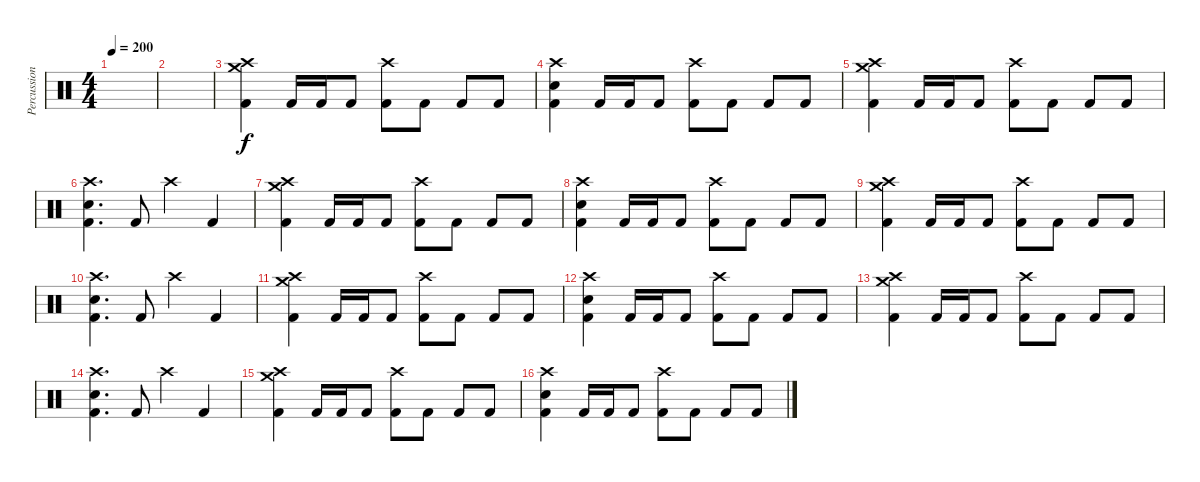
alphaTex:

\track ("Percussions" "Percussion") {instrument percussion}
\staff {score}
\articulation defaults
\ts (4 4)
\tempo 200
\clef neutral
\ks c
|
|
("Crash medium (hit)" "Crash high (hit)" "Kick (hit) 2").4 "Kick (hit) 2".16 "Kick (hit) 2".16 "Kick (hit) 2".8 ("Crash high (hit)" "Kick (hit) 2").8 "Kick (hit) 2".8 "Kick (hit) 2".8 "Kick (hit) 2".8 |
("Crash high (hit)" "Electric Snare (hit)" "Kick (hit) 2").4 "Kick (hit) 2".16 "Kick (hit) 2".16 "Kick (hit) 2".8 ("Crash high (hit)" "Kick (hit) 2").8 "Kick (hit) 2".8 "Kick (hit) 2".8 "Kick (hit) 2".8 |
("Crash medium (hit)" "Crash high (hit)" "Kick (hit) 2").4 "Kick (hit) 2".16 "Kick (hit) 2".16 "Kick (hit) 2".8 ("Crash high (hit)" "Kick (hit) 2").8 "Kick (hit) 2".8 "Kick (hit) 2".8 "Kick (hit) 2".8 |
("Crash high (hit)" "Electric Snare (hit)" "Kick (hit) 2").4{d} "Kick (hit) 2".8 "Crash high (hit)".4 "Kick (hit) 2".4 |
("Crash medium (hit)" "Crash high (hit)" "Kick (hit) 2").4 "Kick (hit) 2".16 "Kick (hit) 2".16 "Kick (hit) 2".8 ("Crash high (hit)" "Kick (hit) 2").8 "Kick (hit) 2".8 "Kick (hit) 2".8 "Kick (hit) 2".8 |
("Crash high (hit)" "Electric Snare (hit)" "Kick (hit) 2").4 "Kick (hit) 2".16 "Kick (hit) 2".16 "Kick (hit) 2".8 ("Crash high (hit)" "Kick (hit) 2").8 "Kick (hit) 2".8 "Kick (hit) 2".8 "Kick (hit) 2".8 |
("Crash medium (hit)" "Crash high (hit)" "Kick (hit) 2").4 "Kick (hit) 2".16 "Kick (hit) 2".16 "Kick (hit) 2".8 ("Crash high (hit)" "Kick (hit) 2").8 "Kick (hit) 2".8 "Kick (hit) 2".8 "Kick (hit) 2".8 |
("Crash high (hit)" "Electric Snare (hit)" "Kick (hit) 2").4{d} "Kick (hit) 2".8 "Crash high (hit)".4 "Kick (hit) 2".4 |
("Crash medium (hit)" "Crash high (hit)" "Kick (hit) 2").4 "Kick (hit) 2".16 "Kick (hit) 2".16 "Kick (hit) 2".8 ("Crash high (hit)" "Kick (hit) 2").8 "Kick (hit) 2".8 "Kick (hit) 2".8 "Kick (hit) 2".8 |
("Crash high (hit)" "Electric Snare (hit)" "Kick (hit) 2").4 "Kick (hit) 2".16 "Kick (hit) 2".16 "Kick (hit) 2".8 ("Crash high (hit)" "Kick (hit) 2").8 "Kick (hit) 2".8 "Kick (hit) 2".8 "Kick (hit) 2".8 |
("Crash medium (hit)" "Crash high (hit)" "Kick (hit) 2").4 "Kick (hit) 2".16 "Kick (hit) 2".16 "Kick (hit) 2".8 ("Crash high (hit)" "Kick (hit) 2").8 "Kick (hit) 2".8 "Kick (hit) 2".8 "Kick (hit) 2".8 |
("Crash high (hit)" "Electric Snare (hit)" "Kick (hit) 2").4{d} "Kick (hit) 2".8 "Crash high (hit)".4 "Kick (hit) 2".4 |
("Crash medium (hit)" "Crash high (hit)" "Kick (hit) 2").4 "Kick (hit) 2".16 "Kick (hit) 2".16 "Kick (hit) 2".8 ("Crash high (hit)" "Kick (hit) 2").8 "Kick (hit) 2".8 "Kick (hit) 2".8 "Kick (hit) 2".8 |
("Crash high (hit)" "Electric Snare (hit)" "Kick (hit) 2").4 "Kick (hit) 2".16 "Kick (hit) 2".16 "Kick (hit) 2".8 ("Crash high (hit)" "Kick (hit) 2").8 "Kick (hit) 2".8 "Kick (hit) 2".8 "Kick (hit) 2".8
